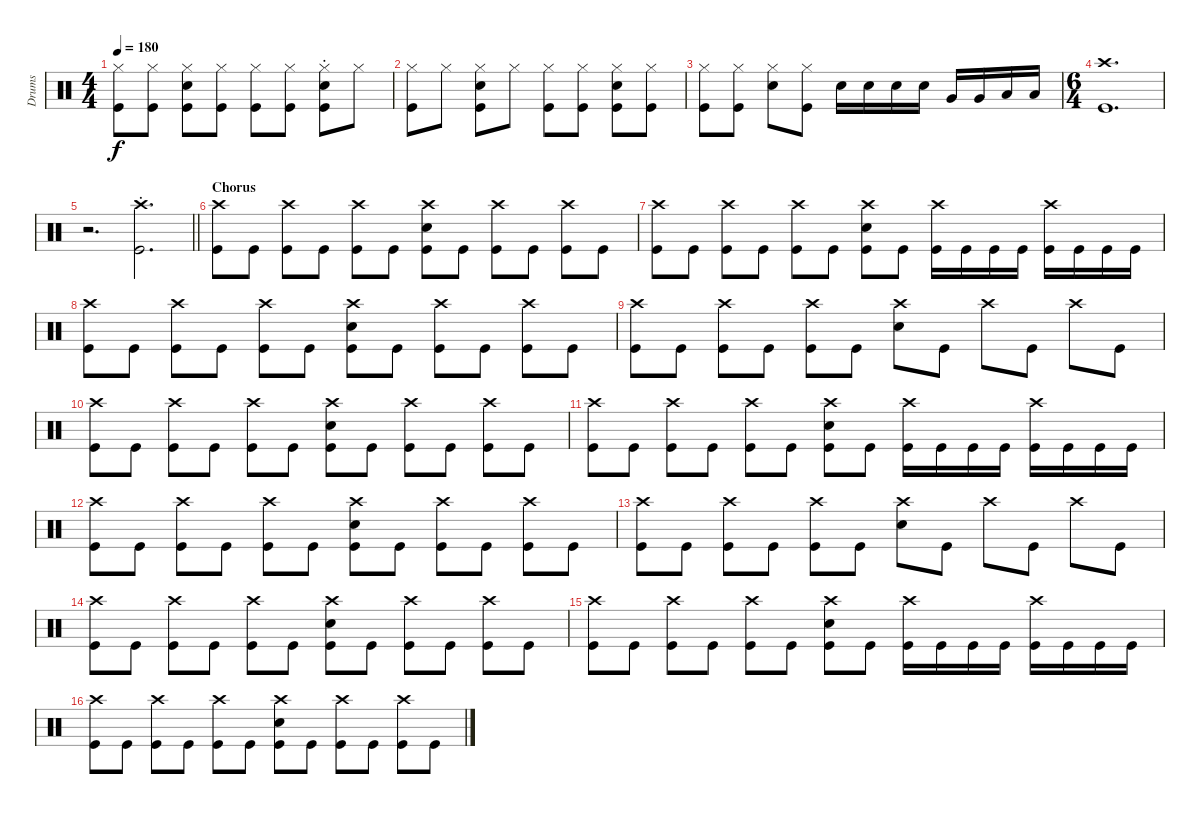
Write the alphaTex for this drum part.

\track ("Drums" "Drums") {instrument percussion}
\staff {score}
\articulation defaults
\ts (4 4)
\tempo 180
\clef neutral
\ks c
("Hi-Hat (closed)" "Kick (hit)").8{dy f} ("Hi-Hat (closed)" "Kick (hit)").8 ("Hi-Hat (closed)" "Snare (hit) 2" "Kick (hit)").8 ("Hi-Hat (closed)" "Kick (hit)").8 ("Hi-Hat (closed)" "Kick (hit)").8 ("Hi-Hat (closed)" "Kick (hit)").8 ("Hi-Hat (closed)" "Snare (hit) 2"{st} "Kick (hit)").8 "Hi-Hat (closed)".8 |
("Hi-Hat (closed)" "Kick (hit)").8 "Hi-Hat (closed)".8 ("Hi-Hat (closed)" "Snare (hit) 2" "Kick (hit)").8 "Hi-Hat (closed)".8 ("Hi-Hat (closed)" "Kick (hit)").8 ("Hi-Hat (closed)" "Kick (hit)").8 ("Hi-Hat (closed)" "Snare (hit) 2" "Kick (hit)").8 ("Hi-Hat (closed)" "Kick (hit)").8 |
("Hi-Hat (closed)" "Kick (hit)").8 ("Hi-Hat (closed)" "Kick (hit)").8 ("Hi-Hat (closed)" "Snare (hit) 2").8 ("Hi-Hat (closed)" "Kick (hit)").8 "Snare (hit) 2".16 "Snare (hit) 2".16 "Snare (hit) 2".16 "Snare (hit) 2".16 "Very Low Tom (hit)".16 "Very Low Tom (hit)".16 "Low Floor Tom (hit)".16 "Low Floor Tom (hit)".16 |
\ts (6 4)
("Crash high (hit)" "Kick (hit)").1{d} |
\barLineRight lightlight
r.2{d} ("Crash high (hit)"{st} "Kick (hit)").2{d} |
\section ("" "Chorus")
("Crash high (hit)" "Kick (hit)").8 "Kick (hit)".8 ("Crash high (hit)" "Kick (hit)").8 "Kick (hit)".8 ("Crash high (hit)" "Kick (hit)").8 "Kick (hit)".8 ("Crash high (hit)" "Snare (hit) 2" "Kick (hit)").8 "Kick (hit)".8 ("Crash high (hit)" "Kick (hit)").8 "Kick (hit)".8 ("Crash high (hit)" "Kick (hit)").8 "Kick (hit)".8 |
("Crash high (hit)" "Kick (hit)").8 "Kick (hit)".8 ("Crash high (hit)" "Kick (hit)").8 "Kick (hit)".8 ("Crash high (hit)" "Kick (hit)").8 "Kick (hit)".8 ("Crash high (hit)" "Snare (hit) 2" "Kick (hit)").8 "Kick (hit)".8 ("Crash high (hit)" "Kick (hit)").16 "Kick (hit)".16 "Kick (hit)".16 "Kick (hit)".16 ("Crash high (hit)" "Kick (hit)").16 "Kick (hit)".16 "Kick (hit)".16 "Kick (hit)".16 |
("Crash high (hit)" "Kick (hit)").8 "Kick (hit)".8 ("Crash high (hit)" "Kick (hit)").8 "Kick (hit)".8 ("Crash high (hit)" "Kick (hit)").8 "Kick (hit)".8 ("Crash high (hit)" "Snare (hit) 2" "Kick (hit)").8 "Kick (hit)".8 ("Crash high (hit)" "Kick (hit)").8 "Kick (hit)".8 ("Crash high (hit)" "Kick (hit)").8 "Kick (hit)".8 |
("Crash high (hit)" "Kick (hit)").8 "Kick (hit)".8 ("Crash high (hit)" "Kick (hit)").8 "Kick (hit)".8 ("Crash high (hit)" "Kick (hit)").8 "Kick (hit)".8 ("Crash high (hit)" "Snare (hit) 2").8 "Kick (hit)".8 "Crash high (hit)".8 "Kick (hit)".8 "Crash high (hit)".8 "Kick (hit)".8 |
("Crash high (hit)" "Kick (hit)").8 "Kick (hit)".8 ("Crash high (hit)" "Kick (hit)").8 "Kick (hit)".8 ("Crash high (hit)" "Kick (hit)").8 "Kick (hit)".8 ("Crash high (hit)" "Snare (hit) 2" "Kick (hit)").8 "Kick (hit)".8 ("Crash high (hit)" "Kick (hit)").8 "Kick (hit)".8 ("Crash high (hit)" "Kick (hit)").8 "Kick (hit)".8 |
("Crash high (hit)" "Kick (hit)").8 "Kick (hit)".8 ("Crash high (hit)" "Kick (hit)").8 "Kick (hit)".8 ("Crash high (hit)" "Kick (hit)").8 "Kick (hit)".8 ("Crash high (hit)" "Snare (hit) 2" "Kick (hit)").8 "Kick (hit)".8 ("Crash high (hit)" "Kick (hit)").16 "Kick (hit)".16 "Kick (hit)".16 "Kick (hit)".16 ("Crash high (hit)" "Kick (hit)").16 "Kick (hit)".16 "Kick (hit)".16 "Kick (hit)".16 |
("Crash high (hit)" "Kick (hit)").8 "Kick (hit)".8 ("Crash high (hit)" "Kick (hit)").8 "Kick (hit)".8 ("Crash high (hit)" "Kick (hit)").8 "Kick (hit)".8 ("Crash high (hit)" "Snare (hit) 2" "Kick (hit)").8 "Kick (hit)".8 ("Crash high (hit)" "Kick (hit)").8 "Kick (hit)".8 ("Crash high (hit)" "Kick (hit)").8 "Kick (hit)".8 |
("Crash high (hit)" "Kick (hit)").8 "Kick (hit)".8 ("Crash high (hit)" "Kick (hit)").8 "Kick (hit)".8 ("Crash high (hit)" "Kick (hit)").8 "Kick (hit)".8 ("Crash high (hit)" "Snare (hit) 2").8 "Kick (hit)".8 "Crash high (hit)".8 "Kick (hit)".8 "Crash high (hit)".8 "Kick (hit)".8 |
("Crash high (hit)" "Kick (hit)").8 "Kick (hit)".8 ("Crash high (hit)" "Kick (hit)").8 "Kick (hit)".8 ("Crash high (hit)" "Kick (hit)").8 "Kick (hit)".8 ("Crash high (hit)" "Snare (hit) 2" "Kick (hit)").8 "Kick (hit)".8 ("Crash high (hit)" "Kick (hit)").8 "Kick (hit)".8 ("Crash high (hit)" "Kick (hit)").8 "Kick (hit)".8 |
("Crash high (hit)" "Kick (hit)").8 "Kick (hit)".8 ("Crash high (hit)" "Kick (hit)").8 "Kick (hit)".8 ("Crash high (hit)" "Kick (hit)").8 "Kick (hit)".8 ("Crash high (hit)" "Snare (hit) 2" "Kick (hit)").8 "Kick (hit)".8 ("Crash high (hit)" "Kick (hit)").16 "Kick (hit)".16 "Kick (hit)".16 "Kick (hit)".16 ("Crash high (hit)" "Kick (hit)").16 "Kick (hit)".16 "Kick (hit)".16 "Kick (hit)".16 |
("Crash high (hit)" "Kick (hit)").8 "Kick (hit)".8 ("Crash high (hit)" "Kick (hit)").8 "Kick (hit)".8 ("Crash high (hit)" "Kick (hit)").8 "Kick (hit)".8 ("Crash high (hit)" "Snare (hit) 2" "Kick (hit)").8 "Kick (hit)".8 ("Crash high (hit)" "Kick (hit)").8 "Kick (hit)".8 ("Crash high (hit)" "Kick (hit)").8 "Kick (hit)".8
